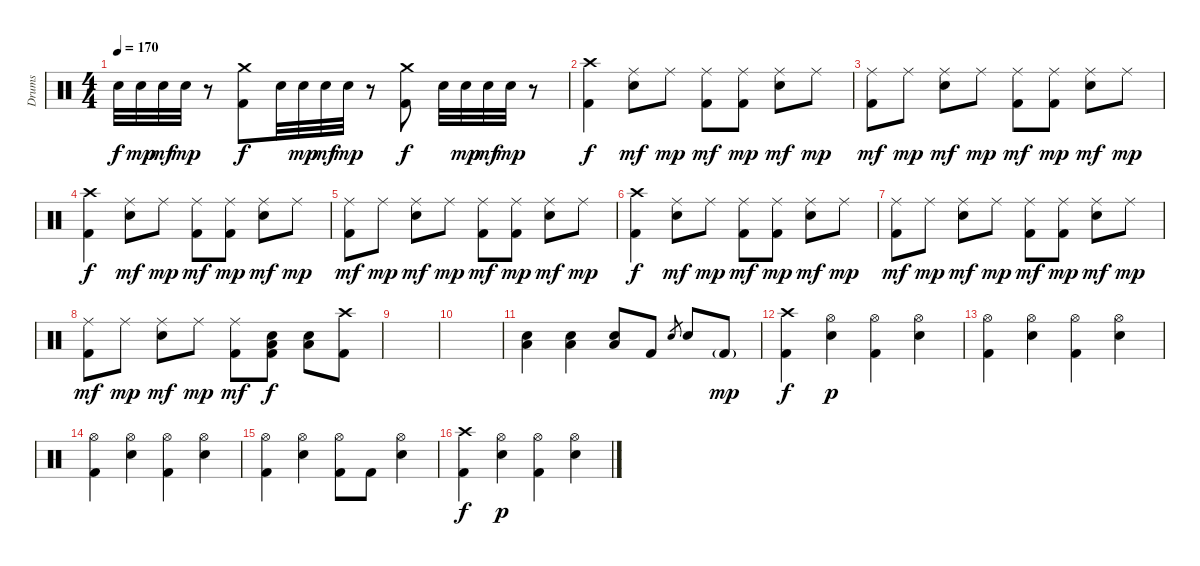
\track ("Drums" "Drums") {instrument percussion}
\staff {score}
\articulation defaults
\ts (4 4)
\tempo 170
\clef neutral
\ks c "Electric Snare (hit)".32{dy f} "Electric Snare (hit)".32{dy mp} "Electric Snare (hit)".32{dy mf} "Electric Snare (hit)".32{dy mp}
r.8 ("Crash medium (hit)" "Kick (hit) 2").8{dy f} "Electric Snare (hit)".32 "Electric Snare (hit)".32{dy mp} "Electric Snare (hit)".32{dy mf} "Electric Snare (hit)".32{dy mp} r.8 ("Crash medium (hit)" "Kick (hit) 2").8{dy f} "Electric Snare (hit)".32 "Electric Snare (hit)".32{dy mp} "Electric Snare (hit)".32{dy mf} "Electric Snare (hit)".32{dy mp} r.8 |
("Crash high (hit)" "Kick (hit) 2").4{dy f} ("Ride (middle)" "Electric Snare (hit)").8{dy mf} "Ride (middle)".8{dy mp} ("Ride (middle)" "Kick (hit) 2").8{dy mf} ("Ride (middle)" "Kick (hit) 2").8{dy mp} ("Ride (middle)" "Electric Snare (hit)").8{dy mf} "Ride (middle)".8{dy mp} |
("Ride (middle)" "Kick (hit) 2").8{dy mf} "Ride (middle)".8{dy mp} ("Ride (middle)" "Electric Snare (hit)").8{dy mf} "Ride (middle)".8{dy mp} ("Ride (middle)" "Kick (hit) 2").8{dy mf} ("Ride (middle)" "Kick (hit) 2").8{dy mp} ("Ride (middle)" "Electric Snare (hit)").8{dy mf} "Ride (middle)".8{dy mp} |
("Crash high (hit)" "Kick (hit) 2").4{dy f} ("Ride (middle)" "Electric Snare (hit)").8{dy mf} "Ride (middle)".8{dy mp} ("Ride (middle)" "Kick (hit) 2").8{dy mf} ("Ride (middle)" "Kick (hit) 2").8{dy mp} ("Ride (middle)" "Electric Snare (hit)").8{dy mf} "Ride (middle)".8{dy mp} |
("Ride (middle)" "Kick (hit) 2").8{dy mf} "Ride (middle)".8{dy mp} ("Ride (middle)" "Electric Snare (hit)").8{dy mf} "Ride (middle)".8{dy mp} ("Ride (middle)" "Kick (hit) 2").8{dy mf} ("Ride (middle)" "Kick (hit) 2").8{dy mp} ("Ride (middle)" "Electric Snare (hit)").8{dy mf} "Ride (middle)".8{dy mp} |
("Crash high (hit)" "Kick (hit) 2").4{dy f} ("Ride (middle)" "Electric Snare (hit)").8{dy mf} "Ride (middle)".8{dy mp} ("Ride (middle)" "Kick (hit) 2").8{dy mf} ("Ride (middle)" "Kick (hit) 2").8{dy mp} ("Ride (middle)" "Electric Snare (hit)").8{dy mf} "Ride (middle)".8{dy mp} |
("Ride (middle)" "Kick (hit) 2").8{dy mf} "Ride (middle)".8{dy mp} ("Ride (middle)" "Electric Snare (hit)").8{dy mf} "Ride (middle)".8{dy mp} ("Ride (middle)" "Kick (hit) 2").8{dy mf} ("Ride (middle)" "Kick (hit) 2").8{dy mp} ("Ride (middle)" "Electric Snare (hit)").8{dy mf} "Ride (middle)".8{dy mp} |
("Ride (middle)" "Kick (hit) 2").8{dy mf} "Ride (middle)".8{dy mp} ("Ride (middle)" "Electric Snare (hit)").8{dy mf} "Ride (middle)".8{dy mp} ("Ride (middle)" "Kick (hit) 2").8{dy mf} ("Electric Snare (hit)" "Low Tom (hit)" "Kick (hit) 2").8{dy f} ("Electric Snare (hit)" "Low Tom (hit)").8 ("Crash high (hit)" "Kick (hit) 2").8 |
|
|
("Electric Snare (hit)" "Low Tom (hit)").4 ("Electric Snare (hit)" "Low Tom (hit)").4 ("Electric Snare (hit)" "Low Tom (hit)").8 "Kick (hit) 2".8 "Electric Snare (hit)".8{gr} "Electric Snare (hit)".8 "Kick (hit) 2"{g}.8{dy mp} |
("Crash high (hit)" "Kick (hit) 2").4{dy f} ("Hi-Hat (open)" "Electric Snare (hit)").4{dy p} ("Hi-Hat (open)" "Kick (hit) 2").4 ("Hi-Hat (open)" "Electric Snare (hit)").4 |
("Hi-Hat (open)" "Kick (hit) 2").4 ("Hi-Hat (open)" "Electric Snare (hit)").4 ("Hi-Hat (open)" "Kick (hit) 2").4 ("Hi-Hat (open)" "Electric Snare (hit)").4 |
("Hi-Hat (open)" "Kick (hit) 2").4 ("Hi-Hat (open)" "Electric Snare (hit)").4 ("Hi-Hat (open)" "Kick (hit) 2").4 ("Hi-Hat (open)" "Electric Snare (hit)").4 |
("Hi-Hat (open)" "Kick (hit) 2").4 ("Hi-Hat (open)" "Electric Snare (hit)").4 ("Hi-Hat (open)" "Kick (hit) 2").8 "Kick (hit) 2".8 ("Hi-Hat (open)" "Electric Snare (hit)").4 |
("Crash high (hit)" "Kick (hit) 2").4{dy f} ("Hi-Hat (open)" "Electric Snare (hit)").4{dy p} ("Hi-Hat (open)" "Kick (hit) 2").4 ("Hi-Hat (open)" "Electric Snare (hit)").4
